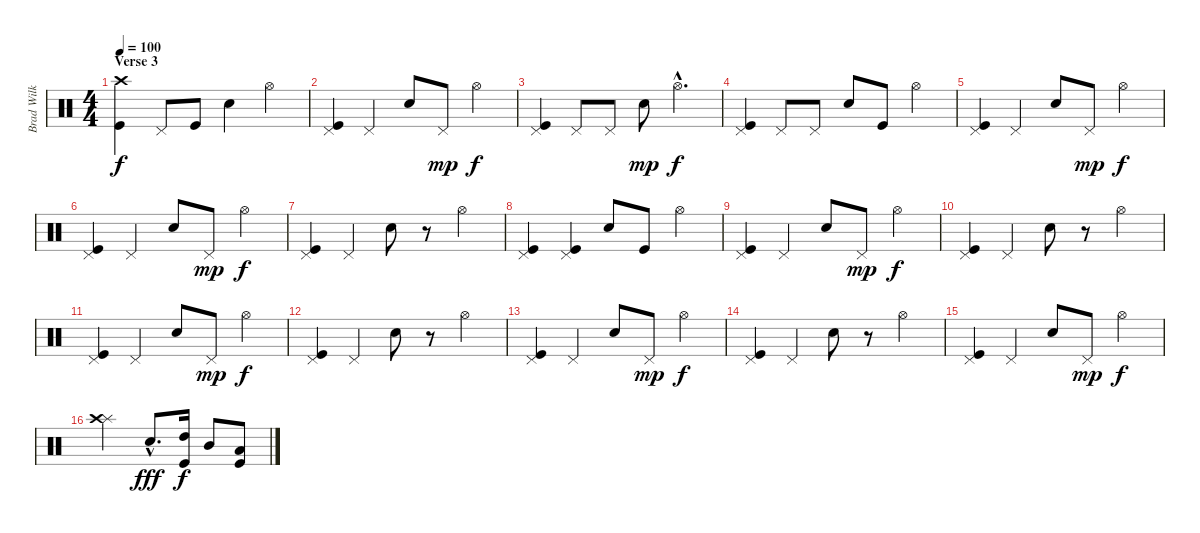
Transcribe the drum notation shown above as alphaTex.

\track ("Brad Wilk - Drums" "Brad Wilk ") {instrument percussion}
\staff {score}
\articulation defaults
\ts (4 4)
\section ("" "Verse 3")
\tempo 100
\clef neutral
\ks c
("Crash high (hit)" "Kick (hit)").4{dy f} "Pedal Hi-Hat (hit)".8 "Kick (hit)".8 "Electric Snare (hit)".4 "Hi-Hat (open)".4 |
("Pedal Hi-Hat (hit)" "Kick (hit)").4 "Pedal Hi-Hat (hit)".4 "Electric Snare (hit)".8 "Pedal Hi-Hat (hit)".8{dy mp} "Hi-Hat (open)".4{dy f} |
("Pedal Hi-Hat (hit)" "Kick (hit)").4 "Pedal Hi-Hat (hit)".8 "Pedal Hi-Hat (hit)".8 "Electric Snare (hit)".8{dy mp} "Hi-Hat (open)"{hac}.4{d dy f} |
("Pedal Hi-Hat (hit)" "Kick (hit)").4 "Pedal Hi-Hat (hit)".8 "Pedal Hi-Hat (hit)".8 "Electric Snare (hit)".8 "Kick (hit)".8 "Hi-Hat (open)".4 |
("Pedal Hi-Hat (hit)" "Kick (hit)").4 "Pedal Hi-Hat (hit)".4 "Electric Snare (hit)".8 "Pedal Hi-Hat (hit)".8{dy mp} "Hi-Hat (open)".4{dy f} |
("Pedal Hi-Hat (hit)" "Kick (hit)").4 "Pedal Hi-Hat (hit)".4 "Electric Snare (hit)".8 "Pedal Hi-Hat (hit)".8{dy mp} "Hi-Hat (open)".4{dy f} |
("Pedal Hi-Hat (hit)" "Kick (hit)").4 "Pedal Hi-Hat (hit)".4 "Electric Snare (hit)".8 r.8 "Hi-Hat (open)".4 |
("Pedal Hi-Hat (hit)" "Kick (hit)").4 ("Pedal Hi-Hat (hit)" "Kick (hit)").4 "Electric Snare (hit)".8 "Kick (hit)".8 "Hi-Hat (open)".4 |
("Pedal Hi-Hat (hit)" "Kick (hit)").4 "Pedal Hi-Hat (hit)".4 "Electric Snare (hit)".8 "Pedal Hi-Hat (hit)".8{dy mp} "Hi-Hat (open)".4{dy f} |
("Pedal Hi-Hat (hit)" "Kick (hit)").4 "Pedal Hi-Hat (hit)".4 "Electric Snare (hit)".8 r.8 "Hi-Hat (open)".4 |
("Pedal Hi-Hat (hit)" "Kick (hit)").4 "Pedal Hi-Hat (hit)".4 "Electric Snare (hit)".8 "Pedal Hi-Hat (hit)".8{dy mp} "Hi-Hat (open)".4{dy f} |
("Pedal Hi-Hat (hit)" "Kick (hit)").4 "Pedal Hi-Hat (hit)".4 "Electric Snare (hit)".8 r.8 "Hi-Hat (open)".4 |
("Pedal Hi-Hat (hit)" "Kick (hit)").4 "Pedal Hi-Hat (hit)".4 "Electric Snare (hit)".8 "Pedal Hi-Hat (hit)".8{dy mp} "Hi-Hat (open)".4{dy f} |
("Pedal Hi-Hat (hit)" "Kick (hit)").4 "Pedal Hi-Hat (hit)".4 "Electric Snare (hit)".8 r.8 "Hi-Hat (open)".4 |
("Pedal Hi-Hat (hit)" "Kick (hit)").4 "Pedal Hi-Hat (hit)".4 "Electric Snare (hit)".8 "Pedal Hi-Hat (hit)".8{dy mp} "Hi-Hat (open)".4{dy f} |
("Splash (hit)" "Crash high (hit)").2 "Electric Snare (hit)"{hac}.8{d dy fff} ("High Tom (hit)" "Kick (hit)").16{dy f} "Mid Tom (hit)".8 ("Low Tom (hit)" "Kick (hit)").8
